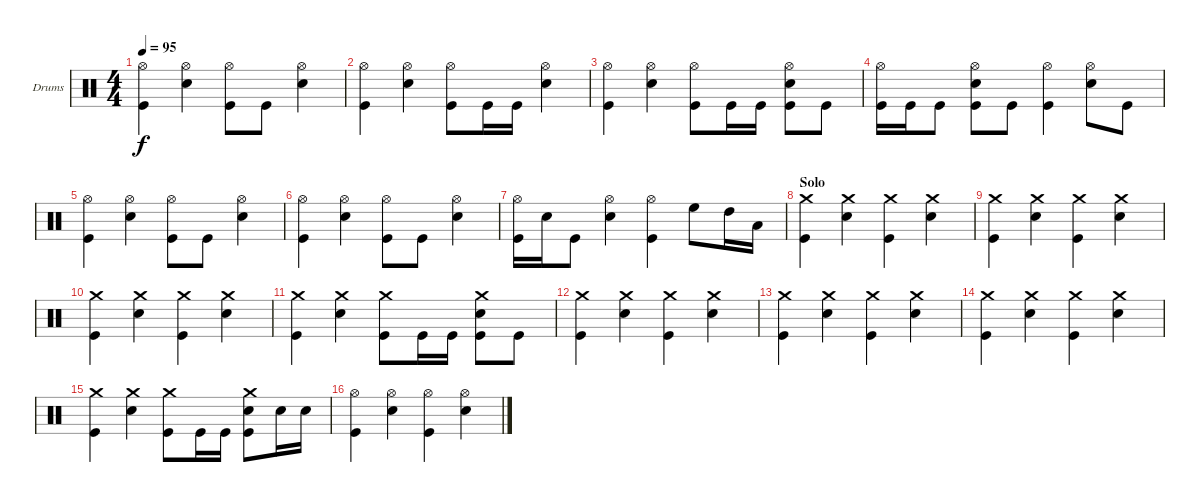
\bracketExtendMode groupsimilarinstruments
\firstSystemTrackNameOrientation horizontal
\otherSystemsTrackNameOrientation horizontal
\track ("Drumkit" "Drums") {instrument percussion}
\staff {score}
\articulation defaults
\ts (4 4)
\tempo 95
\clef neutral
\ks c
("Hi-Hat (open)" "Kick (hit)").4{dy f} ("Hi-Hat (open)" "Snare (hit) 2").4 ("Hi-Hat (open)" "Kick (hit)").8 "Kick (hit)".8 ("Hi-Hat (open)" "Snare (hit) 2").4 |
("Hi-Hat (open)" "Kick (hit)").4 ("Hi-Hat (open)" "Snare (hit) 2").4 ("Hi-Hat (open)" "Kick (hit)").8 "Kick (hit)".16 "Kick (hit)".16 ("Hi-Hat (open)" "Snare (hit) 2").4 |
("Hi-Hat (open)" "Kick (hit)").4 ("Hi-Hat (open)" "Snare (hit) 2").4 ("Hi-Hat (open)" "Kick (hit)").8 "Kick (hit)".16 "Kick (hit)".16 ("Hi-Hat (open)" "Snare (hit) 2" "Kick (hit)").8 "Kick (hit)".8 |
("Hi-Hat (open)" "Kick (hit)").16 "Kick (hit)".16 "Kick (hit)".8 ("Hi-Hat (open)" "Snare (hit) 2" "Kick (hit)").8 "Kick (hit)".8 ("Hi-Hat (open)" "Kick (hit)").4 ("Hi-Hat (open)" "Snare (hit) 2").8 "Kick (hit)".8 |
("Hi-Hat (open)" "Kick (hit)").4 ("Hi-Hat (open)" "Snare (hit) 2").4 ("Hi-Hat (open)" "Kick (hit)").8 "Kick (hit)".8 ("Hi-Hat (open)" "Snare (hit) 2").4 |
("Hi-Hat (open)" "Kick (hit)").4 ("Hi-Hat (open)" "Snare (hit) 2").4 ("Hi-Hat (open)" "Kick (hit)").8 "Kick (hit)".8 ("Hi-Hat (open)" "Snare (hit) 2").4 |
("Hi-Hat (open)" "Kick (hit)").16 "Snare (hit) 2".16 "Kick (hit)".8 ("Hi-Hat (open)" "Snare (hit) 2").4 ("Hi-Hat (open)" "Kick (hit)").4 "High Floor Tom (hit)".8 "High Tom (hit)".16 "Low Tom (hit)".16 |
\section ("" "Solo")
("Crash medium (hit)" "Kick (hit)").4 ("Crash medium (hit)" "Snare (hit) 2").4 ("Crash medium (hit)" "Kick (hit)").4 ("Crash medium (hit)" "Snare (hit) 2").4 |
("Crash medium (hit)" "Kick (hit)").4 ("Crash medium (hit)" "Snare (hit) 2").4 ("Crash medium (hit)" "Kick (hit)").4 ("Crash medium (hit)" "Snare (hit) 2").4 |
("Crash medium (hit)" "Kick (hit)").4 ("Crash medium (hit)" "Snare (hit) 2").4 ("Crash medium (hit)" "Kick (hit)").4 ("Crash medium (hit)" "Snare (hit) 2").4 |
("Crash medium (hit)" "Kick (hit)").4 ("Crash medium (hit)" "Snare (hit) 2").4 ("Crash medium (hit)" "Kick (hit)").8 "Kick (hit)".16 "Kick (hit)".16 ("Crash medium (hit)" "Snare (hit) 2" "Kick (hit)").8 "Kick (hit)".8 |
("Crash medium (hit)" "Kick (hit)").4 ("Crash medium (hit)" "Snare (hit) 2").4 ("Crash medium (hit)" "Kick (hit)").4 ("Crash medium (hit)" "Snare (hit) 2").4 |
("Crash medium (hit)" "Kick (hit)").4 ("Crash medium (hit)" "Snare (hit) 2").4 ("Crash medium (hit)" "Kick (hit)").4 ("Crash medium (hit)" "Snare (hit) 2").4 |
("Crash medium (hit)" "Kick (hit)").4 ("Crash medium (hit)" "Snare (hit) 2").4 ("Crash medium (hit)" "Kick (hit)").4 ("Crash medium (hit)" "Snare (hit) 2").4 |
("Crash medium (hit)" "Kick (hit)").4 ("Crash medium (hit)" "Snare (hit) 2").4 ("Crash medium (hit)" "Kick (hit)").8 "Kick (hit)".16 "Kick (hit)".16 ("Crash medium (hit)" "Snare (hit) 2" "Kick (hit)").8 "Snare (hit) 2".16 "Snare (hit) 2".16 |
("Hi-Hat (open)" "Kick (hit)").4 ("Hi-Hat (open)" "Snare (hit) 2").4 ("Hi-Hat (open)" "Kick (hit)").4 ("Hi-Hat (open)" "Snare (hit) 2").4
